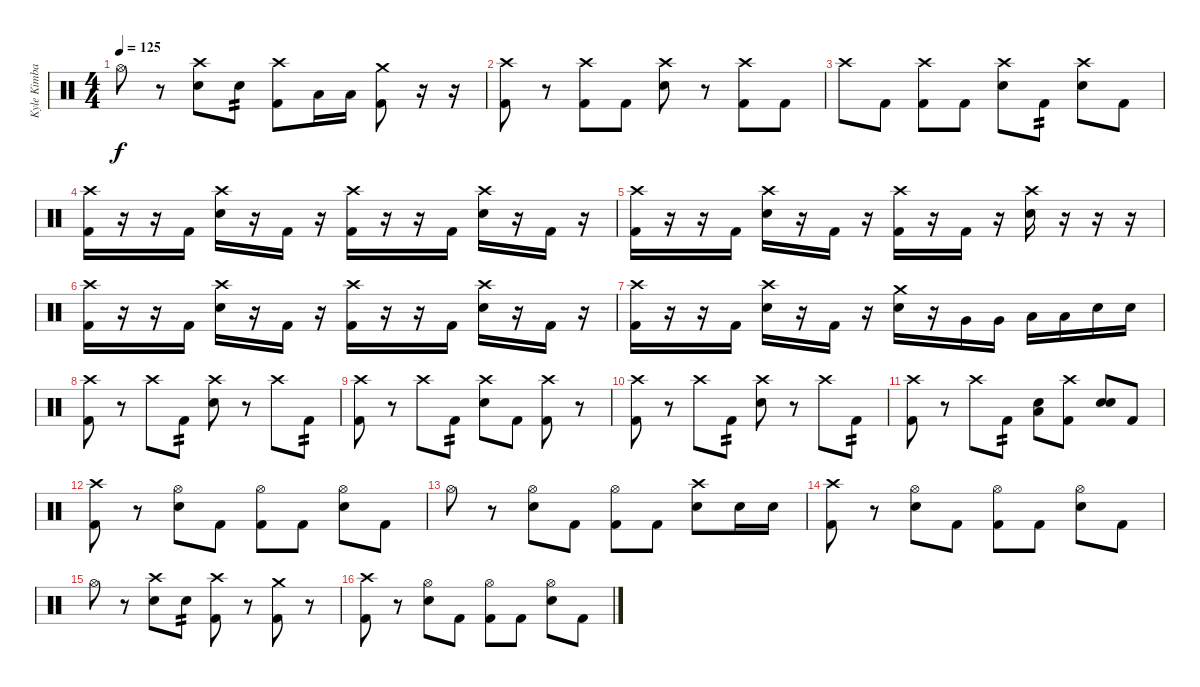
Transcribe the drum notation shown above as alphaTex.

\track ("Kyle Kimball" "Kyle Kimba") {instrument percussion}
\staff
\articulation defaults
\ts (4 4)
\tempo 125
\clef neutral
\ks c "Hi-Hat (open)".8{dy f}
r.8 ("Electric Snare (hit)" "Crash high (hit)").8 "Electric Snare (hit)".8{tp 2} ("Kick (hit) 2" "Crash high (hit)").8 "Low Tom (hit)".16 "Low Tom (hit)".16 ("Kick (hit) 2" "Crash medium (hit)").8 r.16 r.16 |
("Kick (hit) 2" "Crash high (hit)").8 r.8 ("Kick (hit) 2" "Crash high (hit)").8 "Kick (hit) 2".8 ("Electric Snare (hit)" "Crash high (hit)").8 r.8 ("Kick (hit) 2" "Crash high (hit)").8 "Kick (hit) 2".8 |
"Crash high (hit)".8 "Kick (hit) 2".8 ("Kick (hit) 2" "Crash high (hit)").8 "Kick (hit) 2".8 ("Electric Snare (hit)" "Crash high (hit)").8 "Kick (hit) 2".8{tp 2} ("Electric Snare (hit)" "Crash high (hit)").8 "Kick (hit) 2".8 |
("Kick (hit) 2" "Crash high (hit)").16 r.16 r.16 "Kick (hit) 2".16 ("Electric Snare (hit)" "Crash high (hit)").16 r.16 "Kick (hit) 2".16 r.16 ("Kick (hit) 2" "Crash high (hit)").16 r.16 r.16 "Kick (hit) 2".16 ("Electric Snare (hit)" "Crash high (hit)").16 r.16 "Kick (hit) 2".16 r.16 |
("Kick (hit) 2" "Crash high (hit)").16 r.16 r.16 "Kick (hit) 2".16 ("Electric Snare (hit)" "Crash high (hit)").16 r.16 "Kick (hit) 2".16 r.16 ("Kick (hit) 2" "Crash high (hit)").16 r.16 "Kick (hit) 2".16 r.16 ("Electric Snare (hit)" "Crash high (hit)").16 r.16 r.16 r.16 |
("Kick (hit) 2" "Crash high (hit)").16 r.16 r.16 "Kick (hit) 2".16 ("Electric Snare (hit)" "Crash high (hit)").16 r.16 "Kick (hit) 2".16 r.16 ("Kick (hit) 2" "Crash high (hit)").16 r.16 r.16 "Kick (hit) 2".16 ("Electric Snare (hit)" "Crash high (hit)").16 r.16 "Kick (hit) 2".16 r.16 |
("Kick (hit) 2" "Crash high (hit)").16 r.16 r.16 "Kick (hit) 2".16 ("Electric Snare (hit)" "Crash high (hit)").16 r.16 "Kick (hit) 2".16 r.16 ("Electric Snare (hit)" "Crash medium (hit)").16 r.16 "Very Low Tom (hit)".16 "Very Low Tom (hit)".16 "Low Floor Tom (hit)".16 "Low Floor Tom (hit)".16 "Electric Snare (hit)".16 "Electric Snare (hit)".16 |
("Kick (hit) 2" "Crash high (hit)").8 r.8 "Crash high (hit)".8 "Kick (hit) 2".8{tp 2} ("Electric Snare (hit)" "Crash high (hit)").8 r.8 "Crash high (hit)".8 "Kick (hit) 2".8{tp 2} |
("Kick (hit) 2" "Crash high (hit)").8 r.8 "Crash high (hit)".8 "Kick (hit) 2".8{tp 2} ("Electric Snare (hit)" "Crash high (hit)").8 "Kick (hit) 2".8 ("Kick (hit) 2" "Crash high (hit)").8 r.8 |
("Kick (hit) 2" "Crash high (hit)").8 r.8 "Crash high (hit)".8 "Kick (hit) 2".8{tp 2} ("Electric Snare (hit)" "Crash high (hit)").8 r.8 "Crash high (hit)".8 "Kick (hit) 2".8{tp 2} |
("Kick (hit) 2" "Crash high (hit)").8 r.8 "Crash high (hit)".8 "Kick (hit) 2".8{tp 2} ("Electric Snare (hit)" "Low Tom (hit)").8{bd 60} ("Kick (hit) 2" "Crash high (hit)").8 ("Electric Snare (hit)" "Electric Snare (hit)").8{bd 60} "Kick (hit) 2".8 |
("Kick (hit) 2" "Crash high (hit)").8 r.8 ("Electric Snare (hit)" "Hi-Hat (open)").8 "Kick (hit) 2".8 ("Kick (hit) 2" "Hi-Hat (open)").8 "Kick (hit) 2".8 ("Electric Snare (hit)" "Hi-Hat (open)").8 "Kick (hit) 2".8 |
"Hi-Hat (open)".8 r.8 ("Electric Snare (hit)" "Hi-Hat (open)").8 "Kick (hit) 2".8 ("Kick (hit) 2" "Hi-Hat (open)").8 "Kick (hit) 2".8 ("Electric Snare (hit)" "Crash high (hit)").8 "Electric Snare (hit)".16 "Electric Snare (hit)".16 |
("Kick (hit) 2" "Crash high (hit)").8 r.8 ("Electric Snare (hit)" "Hi-Hat (open)").8 "Kick (hit) 2".8 ("Kick (hit) 2" "Hi-Hat (open)").8 "Kick (hit) 2".8 ("Electric Snare (hit)" "Hi-Hat (open)").8 "Kick (hit) 2".8 |
"Hi-Hat (open)".8 r.8 ("Electric Snare (hit)" "Crash high (hit)").8 "Electric Snare (hit)".8{tp 2} ("Kick (hit) 2" "Crash high (hit)").8 r.8 ("Kick (hit) 2" "Crash medium (hit)").8 r.8 |
("Kick (hit) 2" "Crash high (hit)").8 r.8 ("Electric Snare (hit)" "Hi-Hat (open)").8 "Kick (hit) 2".8 ("Kick (hit) 2" "Hi-Hat (open)").8 "Kick (hit) 2".8 ("Electric Snare (hit)" "Hi-Hat (open)").8 "Kick (hit) 2".8
